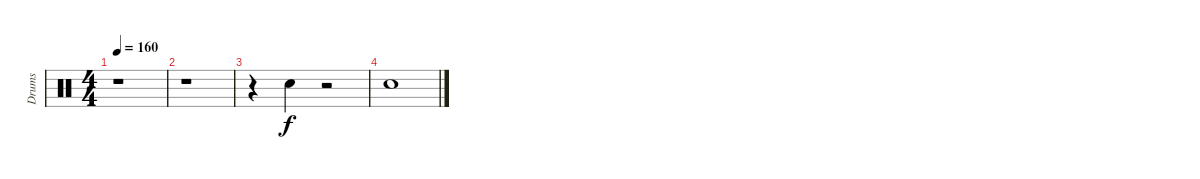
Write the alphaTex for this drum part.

\track ("Drums" "Drums") {instrument percussion}
\staff {score}
\articulation defaults
\ts (4 4)
\tempo 160
\clef neutral
\ks c
r.1{dy f} |
r.1 |
r.4 "Electric Snare (hit)".4 r.2 |
"Electric Snare (hit)".1
